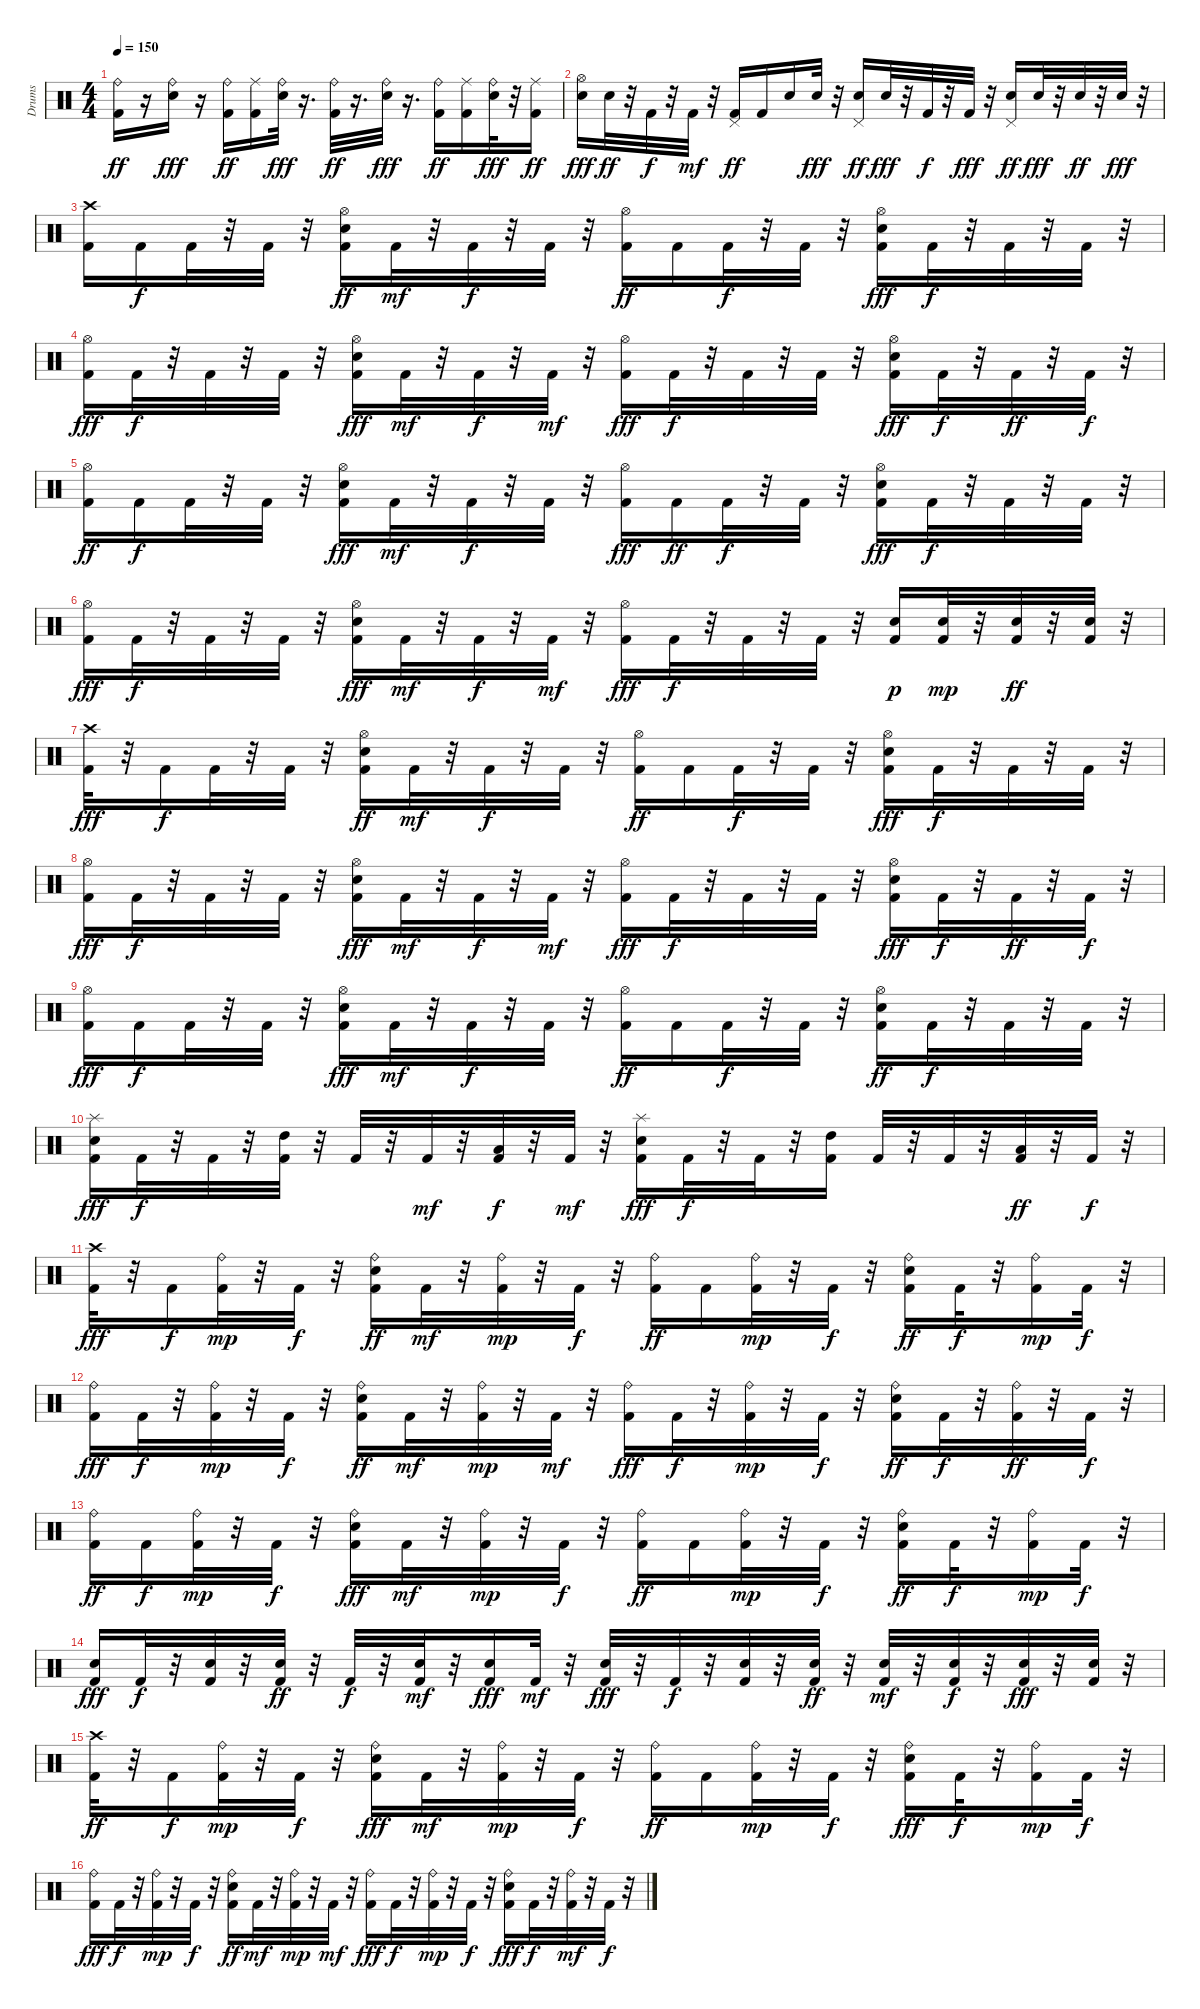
\track ("Drums" "Drums") {instrument percussion}
\staff {score}
\articulation defaults
\ts (4 4)
\tempo 150
\clef neutral
\ks c
("Ride (bell)" "Kick (hit) 2").16{dy ff} r.16 ("Electric Snare (hit)" "Ride (bell)").16{dy fff} r.16 ("Ride (bell)" "Kick (hit) 2").16{dy ff} ("Ride (middle)" "Kick (hit) 2").16 ("Electric Snare (hit)" "Ride (bell)").32{dy fff} r.16{d} ("Ride (bell)" "Kick (hit) 2").32{dy ff} r.16{d} ("Electric Snare (hit)" "Ride (bell)").32{dy fff} r.16{d} ("Ride (bell)" "Kick (hit) 2").16{dy ff} ("Kick (hit) 2" "Ride (middle)").16 ("Ride (bell)" "Electric Snare (hit)").32{dy fff} r.32 ("Kick (hit) 2" "Ride (middle)").16{dy ff} |
("Electric Snare (hit)" "Hi-Hat (open)").16{dy fff} "Electric Snare (hit)".32{dy ff} r.32 "Kick (hit) 2".32{dy f} r.32 "Kick (hit) 2".32{dy mf} r.32 ("Kick (hit) 2" "Pedal Hi-Hat (hit)").16{dy ff} "Kick (hit) 2".16 "Electric Snare (hit)".16 "Electric Snare (hit)".32{dy fff} r.32 ("Electric Snare (hit)" "Pedal Hi-Hat (hit)").16{dy ff} "Electric Snare (hit)".32{dy fff} r.32 "Kick (hit) 2".32{dy f} r.32 "Kick (hit) 2".32{dy fff} r.32 ("Electric Snare (hit)" "Pedal Hi-Hat (hit)").16{dy ff} "Electric Snare (hit)".32{dy fff} r.32 "Electric Snare (hit)".32{dy ff} r.32 "Electric Snare (hit)".32{dy fff} r.32 |
("Kick (hit) 2" "Crash high (hit)").16 "Kick (hit) 2".16{dy f} "Kick (hit) 2".32 r.32 "Kick (hit) 2".32 r.32 ("Electric Snare (hit)" "Hi-Hat (open)" "Kick (hit) 2").16{dy ff} "Kick (hit) 2".32{dy mf} r.32 "Kick (hit) 2".32{dy f} r.32 "Kick (hit) 2".32 r.32 ("Hi-Hat (open)" "Kick (hit) 2").16{dy ff} "Kick (hit) 2".16 "Kick (hit) 2".32{dy f} r.32 "Kick (hit) 2".32 r.32 ("Kick (hit) 2" "Electric Snare (hit)" "Hi-Hat (open)").16{dy fff} "Kick (hit) 2".32{dy f} r.32 "Kick (hit) 2".32 r.32 "Kick (hit) 2".32 r.32 |
("Hi-Hat (open)" "Kick (hit) 2").16{dy fff} "Kick (hit) 2".32{dy f} r.32 "Kick (hit) 2".32 r.32 "Kick (hit) 2".32 r.32 ("Kick (hit) 2" "Hi-Hat (open)" "Electric Snare (hit)").16{dy fff} "Kick (hit) 2".32{dy mf} r.32 "Kick (hit) 2".32{dy f} r.32 "Kick (hit) 2".32{dy mf} r.32 ("Hi-Hat (open)" "Kick (hit) 2").16{dy fff} "Kick (hit) 2".32{dy f} r.32 "Kick (hit) 2".32 r.32 "Kick (hit) 2".32 r.32 ("Electric Snare (hit)" "Hi-Hat (open)" "Kick (hit) 2").16{dy fff} "Kick (hit) 2".32{dy f} r.32 "Kick (hit) 2".32{dy ff} r.32 "Kick (hit) 2".32{dy f} r.32 |
("Hi-Hat (open)" "Kick (hit) 2").16{dy ff} "Kick (hit) 2".16{dy f} "Kick (hit) 2".32 r.32 "Kick (hit) 2".32 r.32 ("Kick (hit) 2" "Hi-Hat (open)" "Electric Snare (hit)").16{dy fff} "Kick (hit) 2".32{dy mf} r.32 "Kick (hit) 2".32{dy f} r.32 "Kick (hit) 2".32 r.32 ("Kick (hit) 2" "Hi-Hat (open)").16{dy fff} "Kick (hit) 2".16{dy ff} "Kick (hit) 2".32{dy f} r.32 "Kick (hit) 2".32 r.32 ("Kick (hit) 2" "Hi-Hat (open)" "Electric Snare (hit)").16{dy fff} "Kick (hit) 2".32{dy f} r.32 "Kick (hit) 2".32 r.32 "Kick (hit) 2".32 r.32 |
("Kick (hit) 2" "Hi-Hat (open)").16{dy fff} "Kick (hit) 2".32{dy f} r.32 "Kick (hit) 2".32 r.32 "Kick (hit) 2".32 r.32 ("Electric Snare (hit)" "Kick (hit) 2" "Hi-Hat (open)").16{dy fff} "Kick (hit) 2".32{dy mf} r.32 "Kick (hit) 2".32{dy f} r.32 "Kick (hit) 2".32{dy mf} r.32 ("Hi-Hat (open)" "Kick (hit) 2").16{dy fff} "Kick (hit) 2".32{dy f} r.32 "Kick (hit) 2".32 r.32 "Kick (hit) 2".32 r.32 ("Electric Snare (hit)" "Kick (hit) 2").16{dy p} ("Electric Snare (hit)" "Kick (hit) 2").32{dy mp} r.32 ("Kick (hit) 2" "Electric Snare (hit)").32{dy ff} r.32 ("Electric Snare (hit)" "Kick (hit) 2").32 r.32 |
("Kick (hit) 2" "Crash high (hit)").32{dy fff} r.32 "Kick (hit) 2".16{dy f} "Kick (hit) 2".32 r.32 "Kick (hit) 2".32 r.32 ("Electric Snare (hit)" "Hi-Hat (open)" "Kick (hit) 2").16{dy ff} "Kick (hit) 2".32{dy mf} r.32 "Kick (hit) 2".32{dy f} r.32 "Kick (hit) 2".32 r.32 ("Hi-Hat (open)" "Kick (hit) 2").16{dy ff} "Kick (hit) 2".16 "Kick (hit) 2".32{dy f} r.32 "Kick (hit) 2".32 r.32 ("Hi-Hat (open)" "Kick (hit) 2" "Electric Snare (hit)").16{dy fff} "Kick (hit) 2".32{dy f} r.32 "Kick (hit) 2".32 r.32 "Kick (hit) 2".32 r.32 |
("Hi-Hat (open)" "Kick (hit) 2").16{dy fff} "Kick (hit) 2".32{dy f} r.32 "Kick (hit) 2".32 r.32 "Kick (hit) 2".32 r.32 ("Kick (hit) 2" "Hi-Hat (open)" "Electric Snare (hit)").16{dy fff} "Kick (hit) 2".32{dy mf} r.32 "Kick (hit) 2".32{dy f} r.32 "Kick (hit) 2".32{dy mf} r.32 ("Kick (hit) 2" "Hi-Hat (open)").16{dy fff} "Kick (hit) 2".32{dy f} r.32 "Kick (hit) 2".32 r.32 "Kick (hit) 2".32 r.32 ("Hi-Hat (open)" "Kick (hit) 2" "Electric Snare (hit)").16{dy fff} "Kick (hit) 2".32{dy f} r.32 "Kick (hit) 2".32{dy ff} r.32 "Kick (hit) 2".32{dy f} r.32 |
("Kick (hit) 2" "Hi-Hat (open)").16{dy fff} "Kick (hit) 2".16{dy f} "Kick (hit) 2".32 r.32 "Kick (hit) 2".32 r.32 ("Hi-Hat (open)" "Kick (hit) 2" "Electric Snare (hit)").16{dy fff} "Kick (hit) 2".32{dy mf} r.32 "Kick (hit) 2".32{dy f} r.32 "Kick (hit) 2".32 r.32 ("Hi-Hat (open)" "Kick (hit) 2").16{dy ff} "Kick (hit) 2".16 "Kick (hit) 2".32{dy f} r.32 "Kick (hit) 2".32 r.32 ("Hi-Hat (open)" "Electric Snare (hit)" "Kick (hit) 2").16{dy ff} "Kick (hit) 2".32{dy f} r.32 "Kick (hit) 2".32 r.32 "Kick (hit) 2".32 r.32 |
("Splash (hit)" "Electric Snare (hit)" "Kick (hit) 2").16{dy fff} "Kick (hit) 2".32{dy f} r.32 "Kick (hit) 2".32 r.32 ("High Tom (hit)" "Kick (hit) 2").32 r.32 "Kick (hit) 2".32 r.32 "Kick (hit) 2".32{dy mf} r.32 ("Kick (hit) 2" "Low Tom (hit)").32{dy f} r.32 "Kick (hit) 2".32{dy mf} r.32 ("Electric Snare (hit)" "Splash (hit)" "Kick (hit) 2").16{dy fff} "Kick (hit) 2".32{dy f} r.32 "Kick (hit) 2".32 r.32 ("Kick (hit) 2" "High Tom (hit)").16 "Kick (hit) 2".32 r.32 "Kick (hit) 2".32 r.32 ("Low Tom (hit)" "Kick (hit) 2").32{dy ff} r.32 "Kick (hit) 2".32{dy f} r.32 |
("Kick (hit) 2" "Crash high (hit)").32{dy fff} r.32 "Kick (hit) 2".16{dy f} ("Ride (bell)" "Kick (hit) 2").32{dy mp} r.32 "Kick (hit) 2".32{dy f} r.32 ("Ride (bell)" "Electric Snare (hit)" "Kick (hit) 2").16{dy ff} "Kick (hit) 2".32{dy mf} r.32 ("Ride (bell)" "Kick (hit) 2").32{dy mp} r.32 "Kick (hit) 2".32{dy f} r.32 ("Kick (hit) 2" "Ride (bell)").16{dy ff} "Kick (hit) 2".16 ("Kick (hit) 2" "Ride (bell)").32{dy mp} r.32 "Kick (hit) 2".32{dy f} r.32 ("Electric Snare (hit)" "Ride (bell)" "Kick (hit) 2").16{dy ff} "Kick (hit) 2".32{dy f} r.32 ("Ride (bell)" "Kick (hit) 2").16{dy mp} "Kick (hit) 2".32{dy f} r.32 |
("Ride (bell)" "Kick (hit) 2").16{dy fff} "Kick (hit) 2".32{dy f} r.32 ("Kick (hit) 2" "Ride (bell)").32{dy mp} r.32 "Kick (hit) 2".32{dy f} r.32 ("Electric Snare (hit)" "Kick (hit) 2" "Ride (bell)").16{dy ff} "Kick (hit) 2".32{dy mf} r.32 ("Ride (bell)" "Kick (hit) 2").32{dy mp} r.32 "Kick (hit) 2".32{dy mf} r.32 ("Ride (bell)" "Kick (hit) 2").16{dy fff} "Kick (hit) 2".32{dy f} r.32 ("Ride (bell)" "Kick (hit) 2").32{dy mp} r.32 "Kick (hit) 2".32{dy f} r.32 ("Electric Snare (hit)" "Kick (hit) 2" "Ride (bell)").16{dy ff} "Kick (hit) 2".32{dy f} r.32 ("Ride (bell)" "Kick (hit) 2").32{dy ff} r.32 "Kick (hit) 2".32{dy f} r.32 |
("Ride (bell)" "Kick (hit) 2").16{dy ff} "Kick (hit) 2".16{dy f} ("Ride (bell)" "Kick (hit) 2").32{dy mp} r.32 "Kick (hit) 2".32{dy f} r.32 ("Electric Snare (hit)" "Kick (hit) 2" "Ride (bell)").16{dy fff} "Kick (hit) 2".32{dy mf} r.32 ("Ride (bell)" "Kick (hit) 2").32{dy mp} r.32 "Kick (hit) 2".32{dy f} r.32 ("Ride (bell)" "Kick (hit) 2").16{dy ff} "Kick (hit) 2".16 ("Ride (bell)" "Kick (hit) 2").32{dy mp} r.32 "Kick (hit) 2".32{dy f} r.32 ("Electric Snare (hit)" "Ride (bell)" "Kick (hit) 2").16{dy ff} "Kick (hit) 2".32{dy f} r.32 ("Ride (bell)" "Kick (hit) 2").16{dy mp} "Kick (hit) 2".32{dy f} r.32 |
("Kick (hit) 2" "Electric Snare (hit)").16{dy fff} "Kick (hit) 2".32{dy f} r.32 ("Kick (hit) 2" "Electric Snare (hit)").32 r.32 ("Electric Snare (hit)" "Kick (hit) 2").32{dy ff} r.32 "Kick (hit) 2".32{dy f} r.32 ("Kick (hit) 2" "Electric Snare (hit)").32{dy mf} r.32 ("Electric Snare (hit)" "Kick (hit) 2").16{dy fff} "Kick (hit) 2".32{dy mf} r.32 ("Electric Snare (hit)" "Kick (hit) 2").32{dy fff} r.32 "Kick (hit) 2".32{dy f} r.32 ("Kick (hit) 2" "Electric Snare (hit)").32 r.32 ("Kick (hit) 2" "Electric Snare (hit)").32{dy ff} r.32 ("Electric Snare (hit)" "Kick (hit) 2").32{dy mf} r.32 ("Electric Snare (hit)" "Kick (hit) 2").32{dy f} r.32 ("Kick (hit) 2" "Electric Snare (hit)").32{dy fff} r.32 ("Kick (hit) 2" "Electric Snare (hit)").32 r.32 |
("Crash high (hit)" "Kick (hit) 2").32{dy ff} r.32 "Kick (hit) 2".16{dy f} ("Kick (hit) 2" "Ride (bell)").32{dy mp} r.32 "Kick (hit) 2".32{dy f} r.32 ("Kick (hit) 2" "Ride (bell)" "Electric Snare (hit)").16{dy fff} "Kick (hit) 2".32{dy mf} r.32 ("Ride (bell)" "Kick (hit) 2").32{dy mp} r.32 "Kick (hit) 2".32{dy f} r.32 ("Ride (bell)" "Kick (hit) 2").16{dy ff} "Kick (hit) 2".16 ("Kick (hit) 2" "Ride (bell)").32{dy mp} r.32 "Kick (hit) 2".32{dy f} r.32 ("Ride (bell)" "Kick (hit) 2" "Electric Snare (hit)").16{dy fff} "Kick (hit) 2".32{dy f} r.32 ("Kick (hit) 2" "Ride (bell)").16{dy mp} "Kick (hit) 2".32{dy f} r.32 |
("Ride (bell)" "Kick (hit) 2").16{dy fff} "Kick (hit) 2".32{dy f} r.32 ("Ride (bell)" "Kick (hit) 2").32{dy mp} r.32 "Kick (hit) 2".32{dy f} r.32 ("Kick (hit) 2" "Electric Snare (hit)" "Ride (bell)").16{dy ff} "Kick (hit) 2".32{dy mf} r.32 ("Kick (hit) 2" "Ride (bell)").32{dy mp} r.32 "Kick (hit) 2".32{dy mf} r.32 ("Kick (hit) 2" "Ride (bell)").16{dy fff} "Kick (hit) 2".32{dy f} r.32 ("Kick (hit) 2" "Ride (bell)").32{dy mp} r.32 "Kick (hit) 2".32{dy f} r.32 ("Kick (hit) 2" "Ride (bell)" "Electric Snare (hit)").16{dy fff} "Kick (hit) 2".32{dy f} r.32 ("Kick (hit) 2" "Ride (bell)").32{dy mf} r.32 "Kick (hit) 2".32{dy f} r.32
